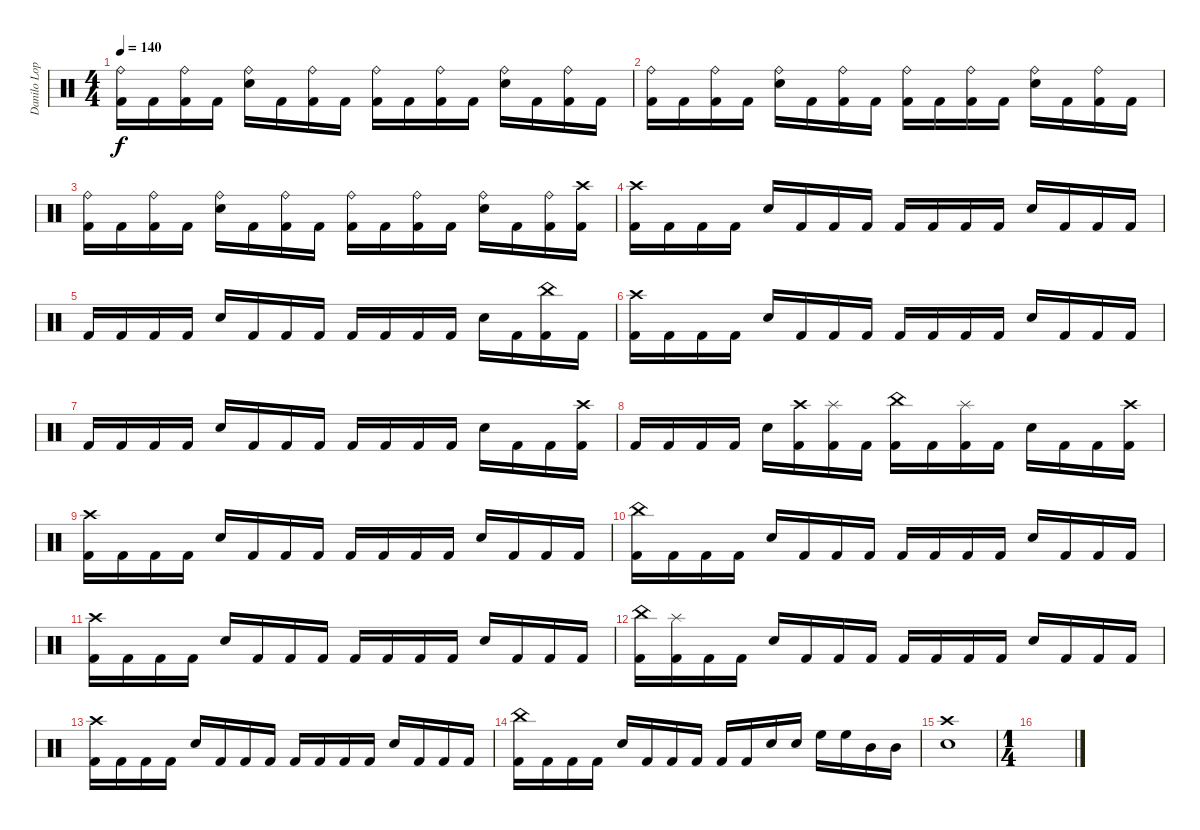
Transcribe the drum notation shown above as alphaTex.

\track ("Danilo Lopes" "Danilo Lop") {instrument percussion}
\staff {score}
\articulation defaults
\ts (4 4)
\tempo 140
\clef neutral
\ks c
("Ride (bell)" "Kick (hit) 2").16{dy f} "Kick (hit) 2".16 ("Ride (bell)" "Kick (hit) 2").16 "Kick (hit) 2".16 ("Ride (bell)" "Snare (hit) 2").16 "Kick (hit) 2".16 ("Ride (bell)" "Kick (hit) 2").16 "Kick (hit) 2".16 ("Ride (bell)" "Kick (hit) 2").16 "Kick (hit) 2".16 ("Ride (bell)" "Kick (hit) 2").16 "Kick (hit) 2".16 ("Ride (bell)" "Snare (hit) 2").16 "Kick (hit) 2".16 ("Ride (bell)" "Kick (hit) 2").16 "Kick (hit) 2".16 |
("Ride (bell)" "Kick (hit) 2").16 "Kick (hit) 2".16 ("Ride (bell)" "Kick (hit) 2").16 "Kick (hit) 2".16 ("Ride (bell)" "Snare (hit) 2").16 "Kick (hit) 2".16 ("Ride (bell)" "Kick (hit) 2").16 "Kick (hit) 2".16 ("Ride (bell)" "Kick (hit) 2").16 "Kick (hit) 2".16 ("Ride (bell)" "Kick (hit) 2").16 "Kick (hit) 2".16 ("Ride (bell)" "Snare (hit) 2").16 "Kick (hit) 2".16 ("Ride (bell)" "Kick (hit) 2").16 "Kick (hit) 2".16 |
("Ride (bell)" "Kick (hit) 2").16 "Kick (hit) 2".16 ("Ride (bell)" "Kick (hit) 2").16 "Kick (hit) 2".16 ("Ride (bell)" "Snare (hit) 2").16 "Kick (hit) 2".16 ("Ride (bell)" "Kick (hit) 2").16 "Kick (hit) 2".16 ("Ride (bell)" "Kick (hit) 2").16 "Kick (hit) 2".16 ("Ride (bell)" "Kick (hit) 2").16 "Kick (hit) 2".16 ("Ride (bell)" "Snare (hit) 2").16 "Kick (hit) 2".16 ("Ride (bell)" "Kick (hit) 2").16 ("Crash high (hit)" "Kick (hit) 2").16 |
("Crash high (hit)" "Kick (hit) 2").16 "Kick (hit) 2".16 "Kick (hit) 2".16 "Kick (hit) 2".16 "Snare (hit) 2".16 "Kick (hit) 2".16 "Kick (hit) 2".16 "Kick (hit) 2".16 "Kick (hit) 2".16 "Kick (hit) 2".16 "Kick (hit) 2".16 "Kick (hit) 2".16 "Snare (hit) 2".16 "Kick (hit) 2".16 "Kick (hit) 2".16 "Kick (hit) 2".16 |
"Kick (hit) 2".16 "Kick (hit) 2".16 "Kick (hit) 2".16 "Kick (hit) 2".16 "Snare (hit) 2".16 "Kick (hit) 2".16 "Kick (hit) 2".16 "Kick (hit) 2".16 "Kick (hit) 2".16 "Kick (hit) 2".16 "Kick (hit) 2".16 "Kick (hit) 2".16 "Snare (hit) 2".16 "Kick (hit) 2".16 ("China (hit)" "Kick (hit) 2").16 "Kick (hit) 2".16 |
("Crash high (hit)" "Kick (hit) 2").16 "Kick (hit) 2".16 "Kick (hit) 2".16 "Kick (hit) 2".16 "Snare (hit) 2".16 "Kick (hit) 2".16 "Kick (hit) 2".16 "Kick (hit) 2".16 "Kick (hit) 2".16 "Kick (hit) 2".16 "Kick (hit) 2".16 "Kick (hit) 2".16 "Snare (hit) 2".16 "Kick (hit) 2".16 "Kick (hit) 2".16 "Kick (hit) 2".16 |
"Kick (hit) 2".16 "Kick (hit) 2".16 "Kick (hit) 2".16 "Kick (hit) 2".16 "Snare (hit) 2".16 "Kick (hit) 2".16 "Kick (hit) 2".16 "Kick (hit) 2".16 "Kick (hit) 2".16 "Kick (hit) 2".16 "Kick (hit) 2".16 "Kick (hit) 2".16 "Snare (hit) 2".16 "Kick (hit) 2".16 "Kick (hit) 2".16 ("Crash high (hit)" "Kick (hit) 2").16 |
"Kick (hit) 2".16 "Kick (hit) 2".16 "Kick (hit) 2".16 "Kick (hit) 2".16 "Snare (hit) 2".16 ("Crash high (hit)" "Kick (hit) 2").16 ("Splash (hit)" "Kick (hit) 2").16 "Kick (hit) 2".16 ("China (hit)" "Kick (hit) 2").16 "Kick (hit) 2".16 ("Splash (hit)" "Kick (hit) 2").16 "Kick (hit) 2".16 "Snare (hit) 2".16 "Kick (hit) 2".16 "Kick (hit) 2".16 ("Crash high (hit)" "Kick (hit) 2").16 |
("Crash high (hit)" "Kick (hit) 2").16 "Kick (hit) 2".16 "Kick (hit) 2".16 "Kick (hit) 2".16 "Snare (hit) 2".16 "Kick (hit) 2".16 "Kick (hit) 2".16 "Kick (hit) 2".16 "Kick (hit) 2".16 "Kick (hit) 2".16 "Kick (hit) 2".16 "Kick (hit) 2".16 "Snare (hit) 2".16 "Kick (hit) 2".16 "Kick (hit) 2".16 "Kick (hit) 2".16 |
("China (hit)" "Kick (hit) 2").16 "Kick (hit) 2".16 "Kick (hit) 2".16 "Kick (hit) 2".16 "Snare (hit) 2".16 "Kick (hit) 2".16 "Kick (hit) 2".16 "Kick (hit) 2".16 "Kick (hit) 2".16 "Kick (hit) 2".16 "Kick (hit) 2".16 "Kick (hit) 2".16 "Snare (hit) 2".16 "Kick (hit) 2".16 "Kick (hit) 2".16 "Kick (hit) 2".16 |
("Crash high (hit)" "Kick (hit) 2").16 "Kick (hit) 2".16 "Kick (hit) 2".16 "Kick (hit) 2".16 "Snare (hit) 2".16 "Kick (hit) 2".16 "Kick (hit) 2".16 "Kick (hit) 2".16 "Kick (hit) 2".16 "Kick (hit) 2".16 "Kick (hit) 2".16 "Kick (hit) 2".16 "Snare (hit) 2".16 "Kick (hit) 2".16 "Kick (hit) 2".16 "Kick (hit) 2".16 |
("China (hit)" "Kick (hit) 2").16 ("Splash (hit)" "Kick (hit) 2").16 "Kick (hit) 2".16 "Kick (hit) 2".16 "Snare (hit) 2".16 "Kick (hit) 2".16 "Kick (hit) 2".16 "Kick (hit) 2".16 "Kick (hit) 2".16 "Kick (hit) 2".16 "Kick (hit) 2".16 "Kick (hit) 2".16 "Snare (hit) 2".16 "Kick (hit) 2".16 "Kick (hit) 2".16 "Kick (hit) 2".16 |
("Crash high (hit)" "Kick (hit) 2").16 "Kick (hit) 2".16 "Kick (hit) 2".16 "Kick (hit) 2".16 "Snare (hit) 2".16 "Kick (hit) 2".16 "Kick (hit) 2".16 "Kick (hit) 2".16 "Kick (hit) 2".16 "Kick (hit) 2".16 "Kick (hit) 2".16 "Kick (hit) 2".16 "Snare (hit) 2".16 "Kick (hit) 2".16 "Kick (hit) 2".16 "Kick (hit) 2".16 |
("China (hit)" "Kick (hit) 2").16 "Kick (hit) 2".16 "Kick (hit) 2".16 "Kick (hit) 2".16 "Snare (hit) 2".16 "Kick (hit) 2".16 "Kick (hit) 2".16 "Kick (hit) 2".16 "Kick (hit) 2".16 "Kick (hit) 2".16 "Snare (hit) 2".16 "Snare (hit) 2".16 "High Floor Tom (hit)".16 "High Floor Tom (hit)".16 "Mid Tom (hit)".16 "Mid Tom (hit)".16 |
("Crash high (hit)" "Snare (hit) 2").1 |
\ts (1 4)
